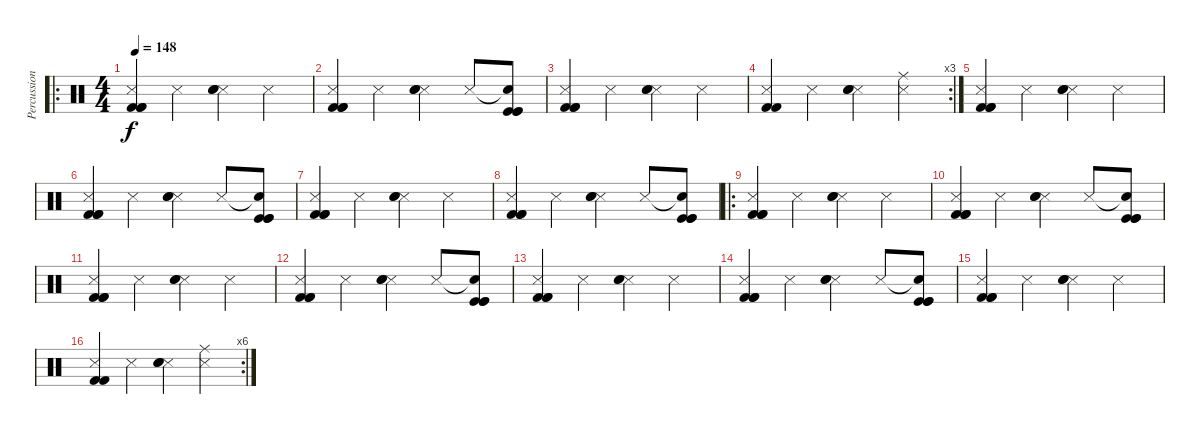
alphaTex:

\track ("Percussion" "Percussion") {instrument percussion}
\staff {score}
\articulation defaults
\ro
\ts (4 4)
\tempo 148
\clef neutral
\ks c
("Snare (side stick) 3" "Kick (hit) 2" "Kick (hit) 2" "Kick (hit) 2").4{dy f} "Snare (side stick) 3".4 ("Snare (side stick) 3" "Electric Snare (hit)" "Electric Snare (hit)").4 "Snare (side stick) 3".4 |
("Snare (side stick) 3" "Kick (hit) 2" "Kick (hit) 2" "Kick (hit) 2").4 "Snare (side stick) 3".4 ("Snare (side stick) 3" "Electric Snare (hit)" "Electric Snare (hit)").4 "Snare (side stick) 3".8 ("Snare (hit)"{t} "Kick (hit)" "Kick (hit)" "Kick (hit)").8 |
("Snare (side stick) 3" "Kick (hit) 2" "Kick (hit) 2" "Kick (hit) 2").4 "Snare (side stick) 3".4 ("Snare (side stick) 3" "Electric Snare (hit)" "Electric Snare (hit)").4 "Snare (side stick) 3".4 |
\rc 3
("Snare (side stick) 3" "Kick (hit) 2" "Kick (hit) 2").4 "Snare (side stick) 3".4 ("Snare (side stick) 3" "Electric Snare (hit)" "Electric Snare (hit)").4 ("Snare (side stick) 3" "Ride (middle)").4 |
("Snare (side stick) 3" "Kick (hit) 2" "Kick (hit) 2" "Kick (hit) 2").4 "Snare (side stick) 3".4 ("Snare (side stick) 3" "Electric Snare (hit)" "Electric Snare (hit)").4 "Snare (side stick) 3".4 |
("Snare (side stick) 3" "Kick (hit) 2" "Kick (hit) 2" "Kick (hit) 2").4 "Snare (side stick) 3".4 ("Snare (side stick) 3" "Electric Snare (hit)" "Electric Snare (hit)").4 "Snare (side stick) 3".8 ("Snare (hit)"{t} "Kick (hit)" "Kick (hit)" "Kick (hit)").8 |
("Snare (side stick) 3" "Kick (hit) 2" "Kick (hit) 2" "Kick (hit) 2").4 "Snare (side stick) 3".4 ("Snare (side stick) 3" "Electric Snare (hit)" "Electric Snare (hit)").4 "Snare (side stick) 3".4 |
("Snare (side stick) 3" "Kick (hit) 2" "Kick (hit) 2" "Kick (hit) 2").4 "Snare (side stick) 3".4 ("Snare (side stick) 3" "Electric Snare (hit)" "Electric Snare (hit)").4 "Snare (side stick) 3".8 ("Snare (hit)"{t} "Kick (hit)" "Kick (hit)" "Kick (hit)").8 |
\ro
("Snare (side stick) 3" "Kick (hit) 2" "Kick (hit) 2" "Kick (hit) 2").4 "Snare (side stick) 3".4 ("Snare (side stick) 3" "Electric Snare (hit)" "Electric Snare (hit)").4 "Snare (side stick) 3".4 |
("Snare (side stick) 3" "Kick (hit) 2" "Kick (hit) 2" "Kick (hit) 2").4 "Snare (side stick) 3".4 ("Snare (side stick) 3" "Electric Snare (hit)" "Electric Snare (hit)").4 "Snare (side stick) 3".8 ("Snare (hit)"{t} "Kick (hit)" "Kick (hit)" "Kick (hit)").8 |
("Snare (side stick) 3" "Kick (hit) 2" "Kick (hit) 2" "Kick (hit) 2").4 "Snare (side stick) 3".4 ("Snare (side stick) 3" "Electric Snare (hit)" "Electric Snare (hit)").4 "Snare (side stick) 3".4 |
("Snare (side stick) 3" "Kick (hit) 2" "Kick (hit) 2" "Kick (hit) 2").4 "Snare (side stick) 3".4 ("Snare (side stick) 3" "Electric Snare (hit)" "Electric Snare (hit)").4 "Snare (side stick) 3".8 ("Snare (hit)"{t} "Kick (hit)" "Kick (hit)" "Kick (hit)").8 |
("Snare (side stick) 3" "Kick (hit) 2" "Kick (hit) 2" "Kick (hit) 2").4 "Snare (side stick) 3".4 ("Snare (side stick) 3" "Electric Snare (hit)" "Electric Snare (hit)").4 "Snare (side stick) 3".4 |
("Snare (side stick) 3" "Kick (hit) 2" "Kick (hit) 2" "Kick (hit) 2").4 "Snare (side stick) 3".4 ("Snare (side stick) 3" "Electric Snare (hit)" "Electric Snare (hit)").4 "Snare (side stick) 3".8 ("Snare (hit)"{t} "Kick (hit)" "Kick (hit)" "Kick (hit)").8 |
("Snare (side stick) 3" "Kick (hit) 2" "Kick (hit) 2" "Kick (hit) 2").4 "Snare (side stick) 3".4 ("Snare (side stick) 3" "Electric Snare (hit)" "Electric Snare (hit)").4 "Snare (side stick) 3".4 |
\rc 6
("Snare (side stick) 3" "Kick (hit) 2" "Kick (hit) 2").4 "Snare (side stick) 3".4 ("Snare (side stick) 3" "Electric Snare (hit)" "Electric Snare (hit)").4 ("Snare (side stick) 3" "Ride (middle)").4
